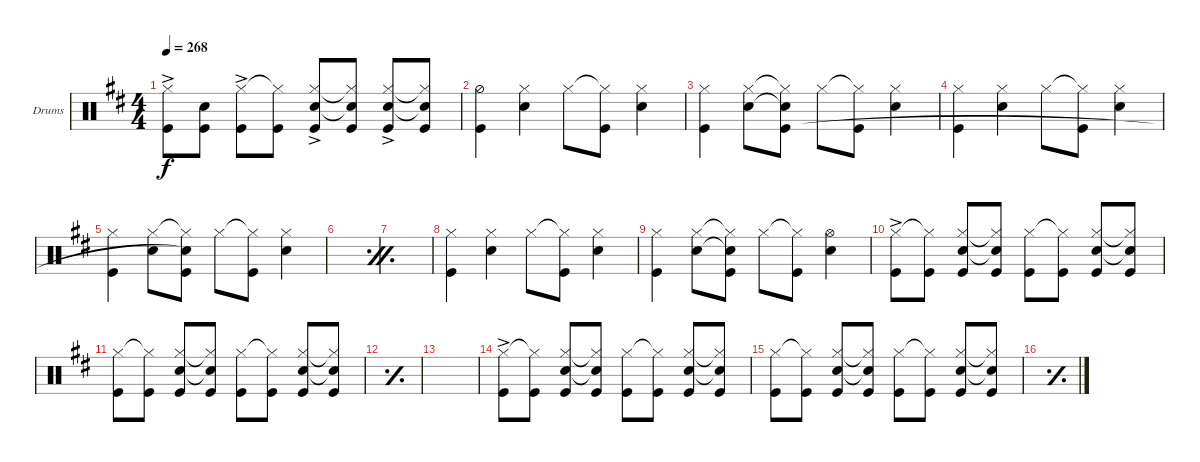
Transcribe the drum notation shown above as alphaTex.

\defaultSystemsLayout 4
\bracketExtendMode groupsimilarinstruments
\firstSystemTrackNameOrientation horizontal
\otherSystemsTrackNameOrientation horizontal
\track ("Stefan Kaufmann" "Drums") {instrument percussion}
\staff {score}
\articulation defaults
\ts (4 4)
\tempo 268
\clef neutral
\ks d
("Kick (hit)"{ac} "Hi-Hat (closed)"{ac}).8{dy f} ("Kick (hit)" "Snare (hit) 2").8 ("Kick (hit)"{ac} "Hi-Hat (closed)"{ac}).8 ("Kick (hit)" "Hi-Hat (closed)"{t}).8 ("Kick (hit)"{ac} "Hi-Hat (closed)"{ac} "Snare (hit) 2"{ac}).8 ("Kick (hit)" "Hi-Hat (closed)"{t} "Snare (hit) 2"{t}).8 ("Kick (hit)"{ac} "Hi-Hat (closed)"{ac} "Snare (hit) 2"{ac}).8 ("Kick (hit)" "Hi-Hat (closed)"{t} "Snare (hit) 2"{t}).8 |
("Kick (hit)" "Hi-Hat (half)").4 ("Hi-Hat (closed)" "Snare (hit) 2").4 "Hi-Hat (closed)".8 ("Hi-Hat (closed)"{t} "Kick (hit)").8 ("Hi-Hat (closed)" "Snare (hit) 2").4 |
("Kick (hit)" "Hi-Hat (closed)").4 ("Hi-Hat (closed)" "Snare (hit) 2").8 ("Hi-Hat (closed)"{t} "Snare (hit) 2"{t} "Kick (hit)").8 "Hi-Hat (closed)".8 ("Hi-Hat (closed)"{t} "Kick (hit)").8 ("Snare (hit) 2" "Hi-Hat (closed)").4 |
("Hi-Hat (closed)" "Kick (hit)").4 ("Hi-Hat (closed)" "Snare (hit) 2").4 "Hi-Hat (closed)".8 ("Hi-Hat (closed)"{t} "Kick (hit)").8 ("Hi-Hat (closed)" "Snare (hit) 2").4 |
("Kick (hit)" "Hi-Hat (closed)").4 ("Hi-Hat (closed)" "Snare (hit) 2").8 ("Hi-Hat (closed)"{t} "Kick (hit)" "Snare (hit) 2"{t}).8 "Hi-Hat (closed)".8 ("Hi-Hat (closed)"{t} "Kick (hit)").8 ("Hi-Hat (closed)" "Snare (hit) 2").4 |
\simile firstofdouble
|
\simile secondofdouble
|
\simile none
("Kick (hit)" "Hi-Hat (closed)").4 ("Hi-Hat (closed)" "Snare (hit) 2").4 "Hi-Hat (closed)".8 ("Hi-Hat (closed)"{t} "Kick (hit)").8 ("Hi-Hat (closed)" "Snare (hit) 2").4 |
("Kick (hit)" "Hi-Hat (closed)").4 ("Hi-Hat (closed)" "Snare (hit) 2").8 ("Hi-Hat (closed)"{t} "Snare (hit) 2"{t} "Kick (hit)").8 "Hi-Hat (closed)".8 ("Hi-Hat (closed)"{t} "Kick (hit)").8 ("Snare (hit) 2" "Hi-Hat (open)").4 |
("Kick (hit)"{ac} "Hi-Hat (closed)"{ac}).8 ("Kick (hit)" "Hi-Hat (closed)"{t}).8 ("Kick (hit)" "Snare (hit) 2" "Hi-Hat (closed)").8 ("Kick (hit)" "Snare (hit) 2"{t} "Hi-Hat (closed)"{t}).8 ("Kick (hit)" "Hi-Hat (closed)").8 ("Kick (hit)" "Hi-Hat (closed)"{t}).8 ("Kick (hit)" "Snare (hit) 2" "Hi-Hat (closed)").8 ("Kick (hit)" "Snare (hit) 2"{t} "Hi-Hat (closed)"{t}).8 |
("Kick (hit)" "Hi-Hat (closed)").8 ("Kick (hit)" "Hi-Hat (closed)"{t}).8 ("Kick (hit)" "Snare (hit) 2" "Hi-Hat (closed)").8 ("Kick (hit)" "Snare (hit) 2"{t} "Hi-Hat (closed)"{t}).8 ("Kick (hit)" "Hi-Hat (closed)").8 ("Kick (hit)" "Hi-Hat (closed)"{t}).8 ("Kick (hit)" "Snare (hit) 2" "Hi-Hat (closed)").8 ("Kick (hit)" "Snare (hit) 2"{t} "Hi-Hat (closed)"{t}).8 |
\simile simple
|
|
\simile none
("Kick (hit)"{ac} "Hi-Hat (closed)"{ac}).8 ("Kick (hit)" "Hi-Hat (closed)"{t}).8 ("Kick (hit)" "Snare (hit) 2" "Hi-Hat (closed)").8 ("Kick (hit)" "Snare (hit) 2"{t} "Hi-Hat (closed)"{t}).8 ("Kick (hit)" "Hi-Hat (closed)").8 ("Kick (hit)" "Hi-Hat (closed)"{t}).8 ("Kick (hit)" "Snare (hit) 2" "Hi-Hat (closed)").8 ("Kick (hit)" "Snare (hit) 2"{t} "Hi-Hat (closed)"{t}).8 |
("Kick (hit)" "Hi-Hat (closed)").8 ("Kick (hit)" "Hi-Hat (closed)"{t}).8 ("Kick (hit)" "Snare (hit) 2" "Hi-Hat (closed)").8 ("Kick (hit)" "Snare (hit) 2"{t} "Hi-Hat (closed)"{t}).8 ("Kick (hit)" "Hi-Hat (closed)").8 ("Kick (hit)" "Hi-Hat (closed)"{t}).8 ("Kick (hit)" "Snare (hit) 2" "Hi-Hat (closed)").8 ("Kick (hit)" "Snare (hit) 2"{t} "Hi-Hat (closed)"{t}).8 |
\simile simple
